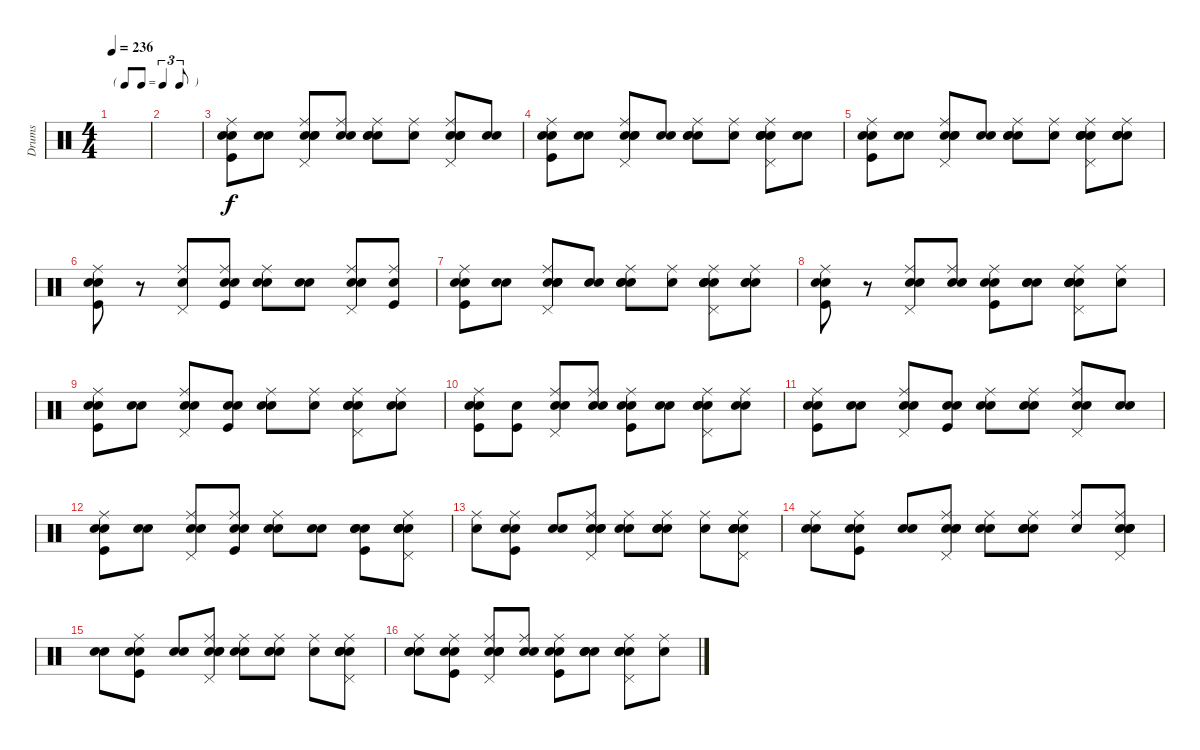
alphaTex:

\track ("Drums" "Drums") {instrument percussion}
\staff {score}
\articulation defaults
\ts (4 4)
\tf triplet8th
\tempo 236
\clef neutral
\ks c
|
|
("Snare (hit)" "Kick (hit)" "Electric Snare (hit)" "Ride (middle)").8 ("Snare (hit)" "Electric Snare (hit)").8 ("Snare (hit)" "Snare (hit) 2" "Electric Snare (hit)" "Ride (middle)" "Pedal Hi-Hat (hit)").8 ("Snare (hit)" "Snare (hit) 2" "Ride (middle)").8 ("Snare (hit)" "Snare (hit) 2" "Electric Snare (hit)" "Ride (middle)").8 ("Snare (hit)" "Ride (middle)").8 ("Snare (hit)" "Snare (hit) 2" "Electric Snare (hit)" "Ride (middle)" "Pedal Hi-Hat (hit)").8 ("Snare (hit)" "Snare (hit) 2").8 |
("Snare (hit)" "Kick (hit)" "Electric Snare (hit)" "Ride (middle)").8 ("Snare (hit)" "Electric Snare (hit)").8 ("Snare (hit)" "Snare (hit) 2" "Electric Snare (hit)" "Ride (middle)" "Pedal Hi-Hat (hit)").8 ("Snare (hit)" "Snare (hit) 2").8 ("Snare (hit)" "Snare (hit) 2" "Electric Snare (hit)" "Ride (middle)").8 ("Snare (hit)" "Ride (middle)").8 ("Snare (hit)" "Snare (hit) 2" "Electric Snare (hit)" "Ride (middle)" "Pedal Hi-Hat (hit)" "Hand Clap (hit)").8 ("Snare (hit)" "Snare (hit) 2").8 |
("Snare (hit)" "Kick (hit)" "Electric Snare (hit)" "Ride (middle)").8 ("Snare (hit)" "Electric Snare (hit)").8 ("Snare (hit)" "Snare (hit) 2" "Electric Snare (hit)" "Ride (middle)" "Pedal Hi-Hat (hit)").8 ("Snare (hit)" "Snare (hit) 2").8 ("Snare (hit)" "Snare (hit) 2" "Electric Snare (hit)" "Ride (middle)").8 ("Snare (hit)" "Ride (middle)").8 ("Snare (hit)" "Snare (hit) 2" "Electric Snare (hit)" "Ride (middle)" "Pedal Hi-Hat (hit)" "Hand Clap (hit)").8 ("Snare (hit)" "Snare (hit) 2" "Ride (middle)" "Hand Clap (hit)").8 |
("Snare (hit)" "Kick (hit)" "Electric Snare (hit)" "Ride (middle)").8 r.8 ("Snare (hit) 2" "Ride (middle)" "Pedal Hi-Hat (hit)").8 ("Snare (hit)" "Kick (hit)" "Snare (hit) 2" "Ride (middle)").8 ("Snare (hit)" "Electric Snare (hit)" "Ride (middle)").8 ("Snare (hit)" "Hand Clap (hit)").8 ("Snare (hit)" "Snare (hit) 2" "Ride (middle)" "Pedal Hi-Hat (hit)").8 ("Snare (hit)" "Kick (hit)" "Ride (middle)").8 |
("Snare (hit)" "Kick (hit)" "Electric Snare (hit)" "Ride (middle)").8 ("Snare (hit)" "Electric Snare (hit)").8 ("Snare (hit)" "Snare (hit) 2" "Electric Snare (hit)" "Ride (middle)" "Pedal Hi-Hat (hit)").8 ("Snare (hit)" "Snare (hit) 2").8 ("Snare (hit)" "Snare (hit) 2" "Electric Snare (hit)" "Ride (middle)").8 ("Snare (hit)" "Ride (middle)").8 ("Snare (hit)" "Snare (hit) 2" "Electric Snare (hit)" "Ride (middle)" "Pedal Hi-Hat (hit)" "Hand Clap (hit)").8 ("Snare (hit)" "Snare (hit) 2" "Ride (middle)" "Hand Clap (hit)").8 |
("Snare (hit)" "Kick (hit)" "Electric Snare (hit)" "Ride (middle)").8 r.8 ("Snare (hit) 2" "Electric Snare (hit)" "Ride (middle)" "Pedal Hi-Hat (hit)").8 ("Snare (hit)" "Ride (middle)" "Hand Clap (hit)").8 ("Snare (hit)" "Kick (hit)" "Electric Snare (hit)" "Ride (middle)").8 ("Snare (hit)" "Electric Snare (hit)" "Hand Clap (hit)").8 ("Snare (hit)" "Snare (hit) 2" "Electric Snare (hit)" "Ride (middle)" "Pedal Hi-Hat (hit)" "Hand Clap (hit)").8 ("Snare (hit)" "Ride (middle)").8 |
("Snare (hit)" "Kick (hit)" "Electric Snare (hit)" "Ride (middle)").8 ("Snare (hit)" "Electric Snare (hit)").8 ("Snare (hit)" "Snare (hit) 2" "Ride (middle)" "Pedal Hi-Hat (hit)").8 ("Snare (hit)" "Kick (hit)" "Snare (hit) 2").8 ("Snare (hit)" "Electric Snare (hit)" "Ride (middle)").8 ("Snare (hit)" "Ride (middle)").8 ("Snare (hit)" "Snare (hit) 2" "Ride (middle)" "Pedal Hi-Hat (hit)" "Hand Clap (hit)").8 ("Snare (hit)" "Ride (middle)" "Hand Clap (hit)").8 |
("Snare (hit)" "Kick (hit)" "Electric Snare (hit)" "Ride (middle)").8 ("Snare (hit)" "Kick (hit)").8 ("Snare (hit)" "Snare (hit) 2" "Ride (middle)" "Pedal Hi-Hat (hit)").8 ("Snare (hit)" "Snare (hit) 2" "Ride (middle)").8 ("Snare (hit)" "Kick (hit)" "Electric Snare (hit)" "Ride (middle)").8 ("Snare (hit)" "Hand Clap (hit)").8 ("Snare (hit)" "Snare (hit) 2" "Ride (middle)" "Pedal Hi-Hat (hit)" "Hand Clap (hit)").8 ("Snare (hit)" "Snare (hit) 2" "Ride (middle)").8 |
("Snare (hit)" "Kick (hit)" "Electric Snare (hit)" "Ride (middle)").8 ("Snare (hit)" "Electric Snare (hit)").8 ("Snare (hit)" "Snare (hit) 2" "Ride (middle)" "Pedal Hi-Hat (hit)").8 ("Snare (hit)" "Kick (hit)" "Hand Clap (hit)").8 ("Snare (hit)" "Electric Snare (hit)" "Ride (middle)").8 ("Snare (hit)" "Ride (middle)" "Hand Clap (hit)").8 ("Snare (hit)" "Snare (hit) 2" "Ride (middle)" "Pedal Hi-Hat (hit)").8 ("Snare (hit)" "Hand Clap (hit)").8 |
("Snare (hit)" "Kick (hit)" "Electric Snare (hit)" "Ride (middle)").8 ("Snare (hit)" "Electric Snare (hit)").8 ("Snare (hit)" "Snare (hit) 2" "Ride (middle)" "Pedal Hi-Hat (hit)").8 ("Snare (hit)" "Kick (hit)" "Snare (hit) 2" "Ride (middle)").8 ("Snare (hit)" "Electric Snare (hit)" "Ride (middle)").8 ("Snare (hit)" "Snare (hit) 2").8 ("Snare (hit)" "Kick (hit)" "Electric Snare (hit)" "Hand Clap (hit)").8 ("Snare (hit)" "Electric Snare (hit)" "Ride (middle)" "Pedal Hi-Hat (hit)" "Hand Clap (hit)").8 |
("Snare (hit)" "Ride (middle)").8 ("Snare (hit)" "Kick (hit)" "Electric Snare (hit)" "Ride (middle)").8 ("Snare (hit)" "Electric Snare (hit)").8 ("Snare (hit)" "Snare (hit) 2" "Electric Snare (hit)" "Ride (middle)" "Pedal Hi-Hat (hit)").8 ("Snare (hit)" "Snare (hit) 2" "Ride (middle)").8 ("Snare (hit)" "Snare (hit) 2" "Electric Snare (hit)" "Ride (middle)").8 ("Snare (hit)" "Ride (middle)").8 ("Snare (hit)" "Snare (hit) 2" "Electric Snare (hit)" "Ride (middle)" "Pedal Hi-Hat (hit)" "Hand Clap (hit)").8 |
("Snare (hit)" "Snare (hit) 2" "Ride (middle)").8 ("Snare (hit)" "Kick (hit)" "Electric Snare (hit)" "Ride (middle)").8 ("Snare (hit)" "Electric Snare (hit)").8 ("Snare (hit)" "Snare (hit) 2" "Electric Snare (hit)" "Ride (middle)" "Pedal Hi-Hat (hit)").8 ("Snare (hit)" "Snare (hit) 2" "Ride (middle)").8 ("Snare (hit)" "Snare (hit) 2" "Electric Snare (hit)" "Ride (middle)").8 ("Snare (hit)" "Ride (middle)").8 ("Snare (hit)" "Snare (hit) 2" "Electric Snare (hit)" "Ride (middle)" "Pedal Hi-Hat (hit)").8 |
("Snare (hit)" "Snare (hit) 2").8 ("Snare (hit)" "Kick (hit)" "Electric Snare (hit)" "Ride (middle)").8 ("Snare (hit)" "Electric Snare (hit)").8 ("Snare (hit)" "Snare (hit) 2" "Electric Snare (hit)" "Ride (middle)" "Pedal Hi-Hat (hit)").8 ("Snare (hit)" "Snare (hit) 2" "Ride (middle)").8 ("Snare (hit)" "Snare (hit) 2" "Electric Snare (hit)" "Ride (middle)").8 ("Snare (hit)" "Ride (middle)").8 ("Snare (hit)" "Snare (hit) 2" "Electric Snare (hit)" "Ride (middle)" "Pedal Hi-Hat (hit)" "Hand Clap (hit)").8 |
("Snare (hit)" "Snare (hit) 2" "Ride (middle)" "Hand Clap (hit)").8 ("Snare (hit)" "Kick (hit)" "Electric Snare (hit)" "Ride (middle)").8 ("Snare (hit)" "Snare (hit) 2" "Electric Snare (hit)" "Ride (middle)" "Pedal Hi-Hat (hit)").8 ("Snare (hit)" "Snare (hit) 2" "Ride (middle)").8 ("Snare (hit)" "Kick (hit)" "Electric Snare (hit)" "Ride (middle)").8 ("Snare (hit)" "Electric Snare (hit)" "Hand Clap (hit)").8 ("Snare (hit)" "Snare (hit) 2" "Electric Snare (hit)" "Ride (middle)" "Pedal Hi-Hat (hit)" "Hand Clap (hit)").8 ("Snare (hit)" "Ride (middle)").8
